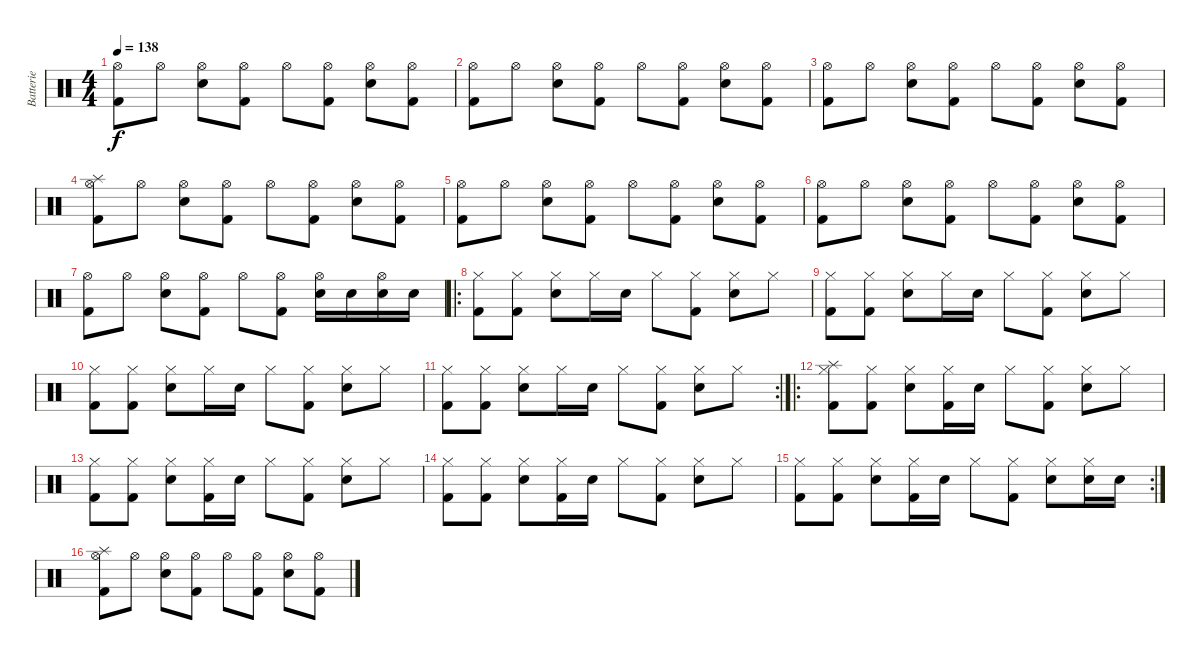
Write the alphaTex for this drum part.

\track ("Batterie" "Batterie") {instrument percussion}
\staff {score}
\articulation defaults
\ts (4 4)
\tempo 138
\clef neutral
\ks c
("Hi-Hat (open)" "Kick (hit) 2").8{dy f} "Hi-Hat (open)".8 ("Hi-Hat (open)" "Snare (hit) 2").8 ("Hi-Hat (open)" "Kick (hit) 2").8 "Hi-Hat (open)".8 ("Hi-Hat (open)" "Kick (hit) 2").8 ("Hi-Hat (open)" "Snare (hit) 2").8 ("Hi-Hat (open)" "Kick (hit) 2").8 |
("Hi-Hat (open)" "Kick (hit) 2").8 "Hi-Hat (open)".8 ("Hi-Hat (open)" "Snare (hit) 2").8 ("Hi-Hat (open)" "Kick (hit) 2").8 "Hi-Hat (open)".8 ("Hi-Hat (open)" "Kick (hit) 2").8 ("Hi-Hat (open)" "Snare (hit) 2").8 ("Hi-Hat (open)" "Kick (hit) 2").8 |
("Hi-Hat (open)" "Kick (hit) 2").8 "Hi-Hat (open)".8 ("Hi-Hat (open)" "Snare (hit) 2").8 ("Hi-Hat (open)" "Kick (hit) 2").8 "Hi-Hat (open)".8 ("Hi-Hat (open)" "Kick (hit) 2").8 ("Hi-Hat (open)" "Snare (hit) 2").8 ("Hi-Hat (open)" "Kick (hit) 2").8 |
("Splash (hit)" "Hi-Hat (open)" "Kick (hit) 2").8 "Hi-Hat (open)".8 ("Hi-Hat (open)" "Snare (hit) 2").8 ("Hi-Hat (open)" "Kick (hit) 2").8 "Hi-Hat (open)".8 ("Hi-Hat (open)" "Kick (hit) 2").8 ("Hi-Hat (open)" "Snare (hit) 2").8 ("Hi-Hat (open)" "Kick (hit) 2").8 |
("Hi-Hat (open)" "Kick (hit) 2").8 "Hi-Hat (open)".8 ("Hi-Hat (open)" "Snare (hit) 2").8 ("Hi-Hat (open)" "Kick (hit) 2").8 "Hi-Hat (open)".8 ("Hi-Hat (open)" "Kick (hit) 2").8 ("Hi-Hat (open)" "Snare (hit) 2").8 ("Hi-Hat (open)" "Kick (hit) 2").8 |
("Hi-Hat (open)" "Kick (hit) 2").8 "Hi-Hat (open)".8 ("Hi-Hat (open)" "Snare (hit) 2").8 ("Hi-Hat (open)" "Kick (hit) 2").8 "Hi-Hat (open)".8 ("Hi-Hat (open)" "Kick (hit) 2").8 ("Hi-Hat (open)" "Snare (hit) 2").8 ("Hi-Hat (open)" "Kick (hit) 2").8 |
("Hi-Hat (open)" "Kick (hit) 2").8 "Hi-Hat (open)".8 ("Hi-Hat (open)" "Snare (hit) 2").8 ("Hi-Hat (open)" "Kick (hit) 2").8 "Hi-Hat (open)".8 ("Hi-Hat (open)" "Kick (hit) 2").8 ("Hi-Hat (open)" "Snare (hit) 2").16 "Snare (hit) 2".16 ("Hi-Hat (open)" "Snare (hit) 2").16 "Snare (hit) 2".16 |
\ro
("Hi-Hat (closed)" "Kick (hit) 2").8 ("Hi-Hat (closed)" "Kick (hit) 2").8 ("Hi-Hat (closed)" "Snare (hit) 2").8 "Hi-Hat (closed)".16 "Snare (hit) 2".16 "Hi-Hat (closed)".8 ("Hi-Hat (closed)" "Kick (hit) 2").8 ("Hi-Hat (closed)" "Snare (hit) 2").8 "Hi-Hat (closed)".8 |
("Hi-Hat (closed)" "Kick (hit) 2").8 ("Hi-Hat (closed)" "Kick (hit) 2").8 ("Hi-Hat (closed)" "Snare (hit) 2").8 "Hi-Hat (closed)".16 "Snare (hit) 2".16 "Hi-Hat (closed)".8 ("Hi-Hat (closed)" "Kick (hit) 2").8 ("Hi-Hat (closed)" "Snare (hit) 2").8 "Hi-Hat (closed)".8 |
("Hi-Hat (closed)" "Kick (hit) 2").8 ("Hi-Hat (closed)" "Kick (hit) 2").8 ("Hi-Hat (closed)" "Snare (hit) 2").8 "Hi-Hat (closed)".16 "Snare (hit) 2".16 "Hi-Hat (closed)".8 ("Hi-Hat (closed)" "Kick (hit) 2").8 ("Hi-Hat (closed)" "Snare (hit) 2").8 "Hi-Hat (closed)".8 |
\rc 2
("Hi-Hat (closed)" "Kick (hit) 2").8 ("Hi-Hat (closed)" "Kick (hit) 2").8 ("Hi-Hat (closed)" "Snare (hit) 2").8 "Hi-Hat (closed)".16 "Snare (hit) 2".16 "Hi-Hat (closed)".8 ("Hi-Hat (closed)" "Kick (hit) 2").8 ("Hi-Hat (closed)" "Snare (hit) 2").8 "Hi-Hat (closed)".8 |
\ro
("Splash (hit)" "Hi-Hat (closed)" "Kick (hit) 2").8 ("Hi-Hat (closed)" "Kick (hit) 2").8 ("Hi-Hat (closed)" "Snare (hit) 2").8 ("Hi-Hat (closed)" "Kick (hit) 2").16 "Snare (hit) 2".16 "Hi-Hat (closed)".8 ("Hi-Hat (closed)" "Kick (hit) 2").8 ("Hi-Hat (closed)" "Snare (hit) 2").8 "Hi-Hat (closed)".8 |
("Hi-Hat (closed)" "Kick (hit) 2").8 ("Hi-Hat (closed)" "Kick (hit) 2").8 ("Hi-Hat (closed)" "Snare (hit) 2").8 ("Hi-Hat (closed)" "Kick (hit) 2").16 "Snare (hit) 2".16 "Hi-Hat (closed)".8 ("Hi-Hat (closed)" "Kick (hit) 2").8 ("Hi-Hat (closed)" "Snare (hit) 2").8 "Hi-Hat (closed)".8 |
("Hi-Hat (closed)" "Kick (hit) 2").8 ("Hi-Hat (closed)" "Kick (hit) 2").8 ("Hi-Hat (closed)" "Snare (hit) 2").8 ("Hi-Hat (closed)" "Kick (hit) 2").16 "Snare (hit) 2".16 "Hi-Hat (closed)".8 ("Hi-Hat (closed)" "Kick (hit) 2").8 ("Hi-Hat (closed)" "Snare (hit) 2").8 "Hi-Hat (closed)".8 |
\rc 2
("Hi-Hat (closed)" "Kick (hit) 2").8 ("Hi-Hat (closed)" "Kick (hit) 2").8 ("Hi-Hat (closed)" "Snare (hit) 2").8 ("Hi-Hat (closed)" "Kick (hit) 2").16 "Snare (hit) 2".16 "Hi-Hat (closed)".8 ("Hi-Hat (closed)" "Kick (hit) 2").8 ("Hi-Hat (closed)" "Snare (hit) 2").8 ("Hi-Hat (closed)" "Snare (hit) 2").16 "Snare (hit) 2".16 |
("Splash (hit)" "Hi-Hat (open)" "Kick (hit) 2").8 "Hi-Hat (open)".8 ("Hi-Hat (open)" "Snare (hit) 2").8 ("Hi-Hat (open)" "Kick (hit) 2").8 "Hi-Hat (open)".8 ("Hi-Hat (open)" "Kick (hit) 2").8 ("Hi-Hat (open)" "Snare (hit) 2").8 ("Hi-Hat (open)" "Kick (hit) 2").8
